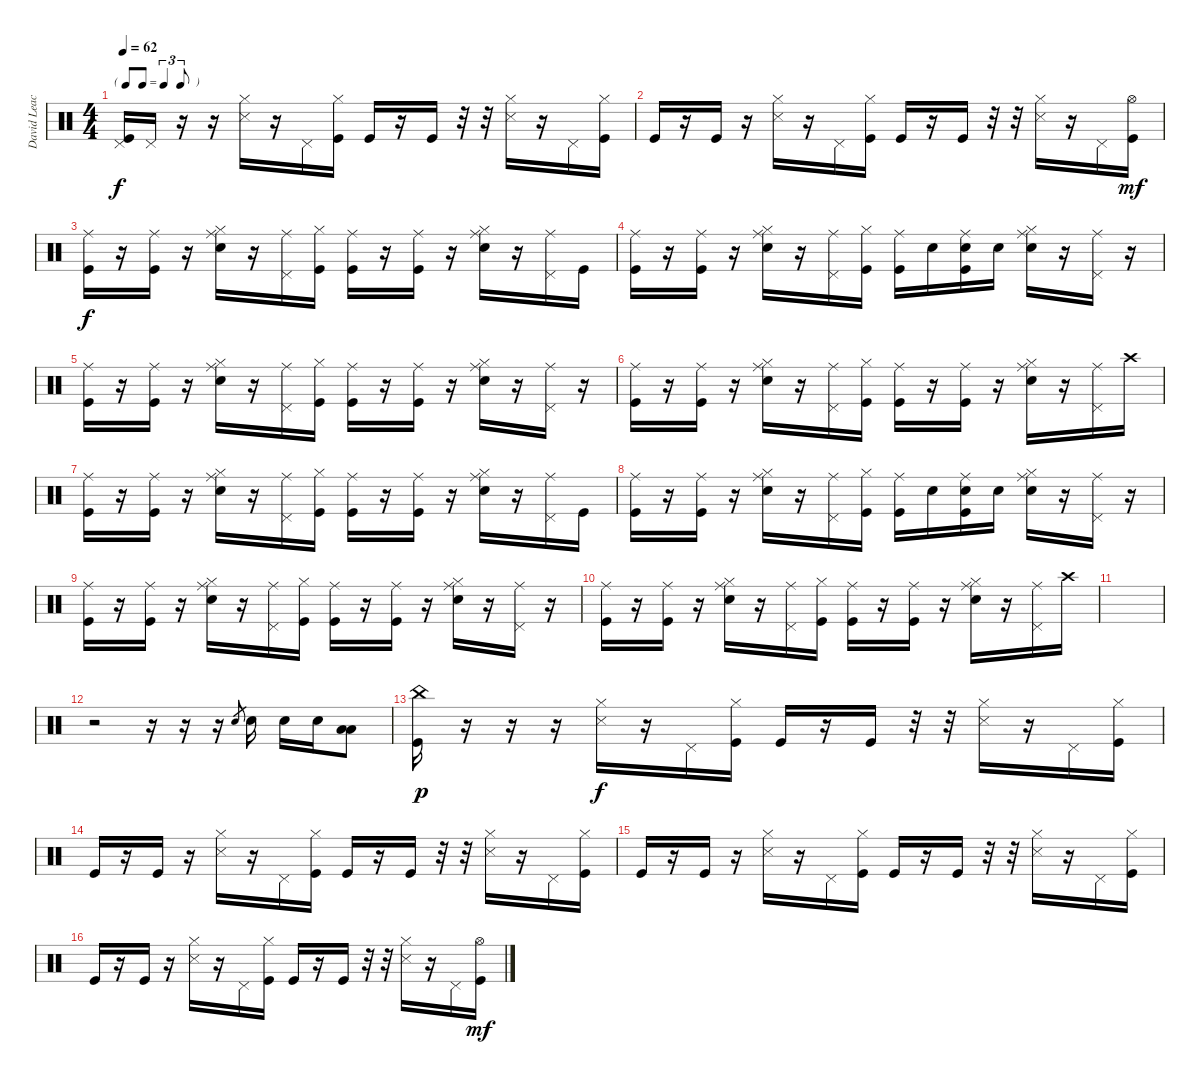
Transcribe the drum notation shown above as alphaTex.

\track ("David Leach-(Percussions)" "David Leac") {instrument percussion}
\staff {score}
\articulation defaults
\ts (4 4)
\tf triplet8th
\tempo 62
\clef neutral
\ks c
("Pedal Hi-Hat (hit)"{t} "Kick (hit)").16{dy f} "Pedal Hi-Hat (hit)".16 r.16 r.16 ("Hi-Hat (closed)" "Snare (side stick) 3").16 r.16 "Pedal Hi-Hat (hit)".16 ("Hi-Hat (closed)" "Kick (hit)").16 "Kick (hit)".16 r.16 "Kick (hit)".16 r.32 r.32 ("Hi-Hat (closed)" "Snare (side stick) 3").16 r.16 "Pedal Hi-Hat (hit)".16 ("Hi-Hat (closed)" "Kick (hit)").16 |
"Kick (hit)".16 r.16 "Kick (hit)".16 r.16 ("Hi-Hat (closed)" "Snare (side stick) 3").16 r.16 "Pedal Hi-Hat (hit)".16 ("Hi-Hat (closed)" "Kick (hit)").16 "Kick (hit)".16 r.16 "Kick (hit)".16 r.32 r.32 ("Hi-Hat (closed)" "Snare (side stick) 3").16 r.16 "Pedal Hi-Hat (hit)".16 ("Hi-Hat (open)" "Kick (hit)").16{dy mf} |
("Ride (middle)" "Kick (hit)").16{dy f volume 13} r.16 ("Ride (middle)" "Kick (hit)").16 r.16 ("Ride (middle)" "Hi-Hat (closed)" "Electric Snare (hit)").16 r.16 ("Ride (middle)" "Pedal Hi-Hat (hit)").16 ("Hi-Hat (closed)" "Kick (hit)").16 ("Ride (middle)" "Kick (hit)").16 r.16 ("Ride (middle)" "Kick (hit)").16 r.16 ("Ride (middle)" "Hi-Hat (closed)" "Electric Snare (hit)").16 r.16 ("Ride (middle)" "Pedal Hi-Hat (hit)").16 "Kick (hit)".16 |
("Ride (middle)" "Kick (hit)").16{volume 13} r.16 ("Ride (middle)" "Kick (hit)").16 r.16 ("Ride (middle)" "Hi-Hat (closed)" "Electric Snare (hit)").16 r.16 ("Ride (middle)" "Pedal Hi-Hat (hit)").16 ("Hi-Hat (closed)" "Kick (hit)").16 ("Ride (middle)" "Kick (hit)").16 "Electric Snare (hit)".16 ("Ride (middle)" "Electric Snare (hit)" "Kick (hit)").16 "Electric Snare (hit)".16 ("Ride (middle)" "Hi-Hat (closed)" "Electric Snare (hit)").16 r.16 ("Ride (middle)" "Pedal Hi-Hat (hit)").16 r.16 |
("Ride (middle)" "Kick (hit)").16{volume 13} r.16 ("Ride (middle)" "Kick (hit)").16 r.16 ("Ride (middle)" "Hi-Hat (closed)" "Electric Snare (hit)").16 r.16 ("Ride (middle)" "Pedal Hi-Hat (hit)").16 ("Hi-Hat (closed)" "Kick (hit)").16 ("Ride (middle)" "Kick (hit)").16 r.16 ("Ride (middle)" "Kick (hit)").16 r.16 ("Ride (middle)" "Hi-Hat (closed)" "Electric Snare (hit)").16 r.16 ("Ride (middle)" "Pedal Hi-Hat (hit)").16 r.16 |
("Ride (middle)" "Kick (hit)").16{volume 13} r.16 ("Ride (middle)" "Kick (hit)").16 r.16 ("Ride (middle)" "Hi-Hat (closed)" "Electric Snare (hit)").16 r.16 ("Ride (middle)" "Pedal Hi-Hat (hit)").16 ("Hi-Hat (closed)" "Kick (hit)").16 ("Ride (middle)" "Kick (hit)").16 r.16 ("Ride (middle)" "Kick (hit)").16 r.16 ("Ride (middle)" "Hi-Hat (closed)" "Electric Snare (hit)").16 r.16 ("Ride (middle)" "Pedal Hi-Hat (hit)").16 "Crash high (hit)".16 |
("Ride (middle)" "Kick (hit)").16{volume 13} r.16 ("Ride (middle)" "Kick (hit)").16 r.16 ("Ride (middle)" "Hi-Hat (closed)" "Electric Snare (hit)").16 r.16 ("Ride (middle)" "Pedal Hi-Hat (hit)").16 ("Hi-Hat (closed)" "Kick (hit)").16 ("Ride (middle)" "Kick (hit)").16 r.16 ("Ride (middle)" "Kick (hit)").16 r.16 ("Ride (middle)" "Hi-Hat (closed)" "Electric Snare (hit)").16 r.16 ("Ride (middle)" "Pedal Hi-Hat (hit)").16 "Kick (hit)".16 |
("Ride (middle)" "Kick (hit)").16{volume 13} r.16 ("Ride (middle)" "Kick (hit)").16 r.16 ("Ride (middle)" "Hi-Hat (closed)" "Electric Snare (hit)").16 r.16 ("Ride (middle)" "Pedal Hi-Hat (hit)").16 ("Hi-Hat (closed)" "Kick (hit)").16 ("Ride (middle)" "Kick (hit)").16 "Electric Snare (hit)".16 ("Ride (middle)" "Electric Snare (hit)" "Kick (hit)").16 "Electric Snare (hit)".16 ("Ride (middle)" "Hi-Hat (closed)" "Electric Snare (hit)").16 r.16 ("Ride (middle)" "Pedal Hi-Hat (hit)").16 r.16 |
("Ride (middle)" "Kick (hit)").16{volume 13} r.16 ("Ride (middle)" "Kick (hit)").16 r.16 ("Ride (middle)" "Hi-Hat (closed)" "Electric Snare (hit)").16 r.16 ("Ride (middle)" "Pedal Hi-Hat (hit)").16 ("Hi-Hat (closed)" "Kick (hit)").16 ("Ride (middle)" "Kick (hit)").16 r.16 ("Ride (middle)" "Kick (hit)").16 r.16 ("Ride (middle)" "Hi-Hat (closed)" "Electric Snare (hit)").16 r.16 ("Ride (middle)" "Pedal Hi-Hat (hit)").16 r.16 |
("Ride (middle)" "Kick (hit)").16{volume 13} r.16 ("Ride (middle)" "Kick (hit)").16 r.16 ("Ride (middle)" "Hi-Hat (closed)" "Electric Snare (hit)").16 r.16 ("Ride (middle)" "Pedal Hi-Hat (hit)").16 ("Hi-Hat (closed)" "Kick (hit)").16 ("Ride (middle)" "Kick (hit)").16 r.16 ("Ride (middle)" "Kick (hit)").16 r.16 ("Ride (middle)" "Hi-Hat (closed)" "Electric Snare (hit)").16 r.16 ("Ride (middle)" "Pedal Hi-Hat (hit)").16 "Crash high (hit)".16 |
|
r.2{volume 8} r.16 r.16 r.16 "Electric Snare (hit)".8{gr} "Electric Snare (hit)".16 "Electric Snare (hit)".16 "Electric Snare (hit)".16 ("Low Tom (hit)" "Low Floor Tom (hit)").8 |
("China (hit)" "Kick (hit)").16{dy p} r.16 r.16 r.16 ("Hi-Hat (closed)" "Snare (side stick) 3").16{dy f} r.16 "Pedal Hi-Hat (hit)".16 ("Hi-Hat (closed)" "Kick (hit)").16 "Kick (hit)".16 r.16 "Kick (hit)".16 r.32 r.32 ("Hi-Hat (closed)" "Snare (side stick) 3").16 r.16 "Pedal Hi-Hat (hit)".16 ("Hi-Hat (closed)" "Kick (hit)").16 |
"Kick (hit)".16 r.16 "Kick (hit)".16 r.16 ("Hi-Hat (closed)" "Snare (side stick) 3").16 r.16 "Pedal Hi-Hat (hit)".16 ("Hi-Hat (closed)" "Kick (hit)").16 "Kick (hit)".16 r.16 "Kick (hit)".16 r.32 r.32 ("Hi-Hat (closed)" "Snare (side stick) 3").16 r.16 "Pedal Hi-Hat (hit)".16 ("Hi-Hat (closed)" "Kick (hit)").16 |
"Kick (hit)".16 r.16 "Kick (hit)".16 r.16 ("Hi-Hat (closed)" "Snare (side stick) 3").16 r.16 "Pedal Hi-Hat (hit)".16 ("Hi-Hat (closed)" "Kick (hit)").16 "Kick (hit)".16 r.16 "Kick (hit)".16 r.32 r.32 ("Hi-Hat (closed)" "Snare (side stick) 3").16 r.16 "Pedal Hi-Hat (hit)".16 ("Hi-Hat (closed)" "Kick (hit)").16 |
"Kick (hit)".16 r.16 "Kick (hit)".16 r.16 ("Hi-Hat (closed)" "Snare (side stick) 3").16 r.16 "Pedal Hi-Hat (hit)".16 ("Hi-Hat (closed)" "Kick (hit)").16 "Kick (hit)".16 r.16 "Kick (hit)".16 r.32 r.32 ("Hi-Hat (closed)" "Snare (side stick) 3").16 r.16 "Pedal Hi-Hat (hit)".16 ("Hi-Hat (open)" "Kick (hit)").16{dy mf}
